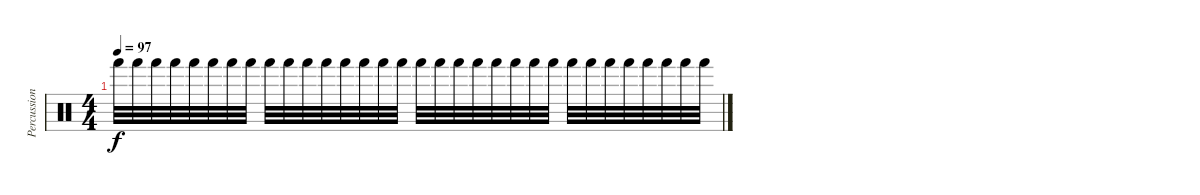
\track ("Percussions" "Percussion") {instrument percussion}
\staff {score}
\articulation defaults
\ts (4 4)
\tempo 97
\clef neutral
\ks c "Hand (hit)".32{dy f volume 0} "Hand (hit)".32 "Hand (hit)".32 "Hand (hit)".32 "Hand (hit)".32 "Hand (hit)".32 "Hand (hit)".32 "Hand (hit)".32 "Hand (hit)".32 "Hand (hit)".32 "Hand (hit)".32 "Hand (hit)".32 "Hand (hit)".32 "Hand (hit)".32 "Hand (hit)".32 "Hand (hit)".32 "Hand (hit)".32 "Hand (hit)".32 "Hand (hit)".32 "Hand (hit)".32 "Hand (hit)".32 "Hand (hit)".32 "Hand (hit)".32 "Hand (hit)".32 "Hand (hit)".32 "Hand (hit)".32 "Hand (hit)".32 "Hand (hit)".32 "Hand (hit)".32 "Hand (hit)".32 "Hand (hit)".32 "Hand (hit)".32
